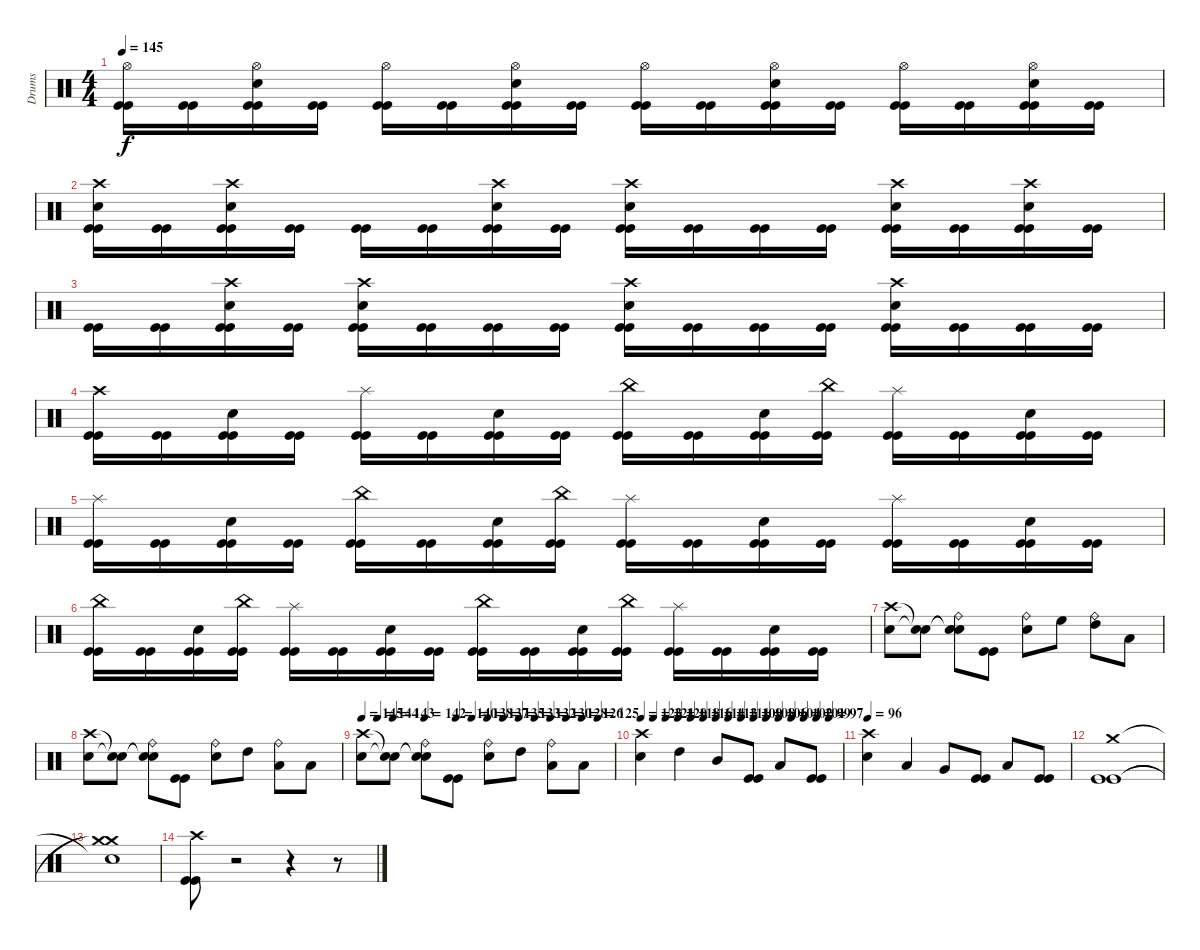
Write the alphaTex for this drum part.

\track ("Drums" "Drums") {instrument percussion}
\staff {score}
\articulation defaults
\ts (4 4)
\tempo 145
\clef neutral
\ks c
("Kick (hit)" "Kick (hit)" "Hi-Hat (open)").16{dy f} ("Kick (hit)" "Kick (hit)").16 ("Kick (hit)" "Kick (hit)" "Snare (hit) 2" "Hi-Hat (open)").16 ("Kick (hit)" "Kick (hit)").16 ("Kick (hit)" "Kick (hit)" "Hi-Hat (open)").16 ("Kick (hit)" "Kick (hit)").16 ("Kick (hit)" "Kick (hit)" "Snare (hit) 2" "Hi-Hat (open)").16 ("Kick (hit)" "Kick (hit)").16 ("Kick (hit)" "Kick (hit)" "Hi-Hat (open)").16 ("Kick (hit)" "Kick (hit)").16 ("Kick (hit)" "Kick (hit)" "Snare (hit) 2" "Hi-Hat (open)").16 ("Kick (hit)" "Kick (hit)").16 ("Kick (hit)" "Kick (hit)" "Hi-Hat (open)").16 ("Kick (hit)" "Kick (hit)").16 ("Kick (hit)" "Kick (hit)" "Snare (hit) 2" "Hi-Hat (open)").16 ("Kick (hit)" "Kick (hit)").16 |
("Kick (hit)" "Kick (hit)" "Snare (hit) 2" "Crash high (hit)").16 ("Kick (hit)" "Kick (hit)").16 ("Kick (hit)" "Kick (hit)" "Snare (hit) 2" "Crash high (hit)").16 ("Kick (hit)" "Kick (hit)").16 ("Kick (hit)" "Kick (hit)").16 ("Kick (hit)" "Kick (hit)").16 ("Kick (hit)" "Kick (hit)" "Snare (hit) 2" "Crash high (hit)").16 ("Kick (hit)" "Kick (hit)").16 ("Kick (hit)" "Kick (hit)" "Snare (hit) 2" "Crash high (hit)").16 ("Kick (hit)" "Kick (hit)").16 ("Kick (hit)" "Kick (hit)").16 ("Kick (hit)" "Kick (hit)").16 ("Kick (hit)" "Kick (hit)" "Snare (hit) 2" "Crash high (hit)").16 ("Kick (hit)" "Kick (hit)").16 ("Kick (hit)" "Kick (hit)" "Snare (hit) 2" "Crash high (hit)").16 ("Kick (hit)" "Kick (hit)").16 |
("Kick (hit)" "Kick (hit)").16 ("Kick (hit)" "Kick (hit)").16 ("Kick (hit)" "Kick (hit)" "Snare (hit) 2" "Crash high (hit)").16 ("Kick (hit)" "Kick (hit)").16 ("Kick (hit)" "Kick (hit)" "Snare (hit) 2" "Crash high (hit)").16 ("Kick (hit)" "Kick (hit)").16 ("Kick (hit)" "Kick (hit)").16 ("Kick (hit)" "Kick (hit)").16 ("Kick (hit)" "Kick (hit)" "Snare (hit) 2" "Crash high (hit)").16 ("Kick (hit)" "Kick (hit)").16 ("Kick (hit)" "Kick (hit)").16 ("Kick (hit)" "Kick (hit)").16 ("Kick (hit)" "Kick (hit)" "Snare (hit) 2" "Crash high (hit)").16 ("Kick (hit)" "Kick (hit)").16 ("Kick (hit)" "Kick (hit)").16 ("Kick (hit)" "Kick (hit)").16 |
("Kick (hit)" "Kick (hit)" "Crash high (hit)").16 ("Kick (hit)" "Kick (hit)").16 ("Kick (hit)" "Kick (hit)" "Snare (hit) 2").16 ("Kick (hit)" "Kick (hit)").16 ("Kick (hit)" "Kick (hit)" "Splash (hit)").16 ("Kick (hit)" "Kick (hit)").16 ("Kick (hit)" "Kick (hit)" "Snare (hit) 2").16 ("Kick (hit)" "Kick (hit)").16 ("Kick (hit)" "Kick (hit)" "China (hit)").16 ("Kick (hit)" "Kick (hit)").16 ("Kick (hit)" "Kick (hit)" "Snare (hit) 2").16 ("Kick (hit)" "Kick (hit)" "China (hit)").16 ("Kick (hit)" "Kick (hit)" "Splash (hit)").16 ("Kick (hit)" "Kick (hit)").16 ("Kick (hit)" "Kick (hit)" "Snare (hit) 2").16 ("Kick (hit)" "Kick (hit)").16 |
("Kick (hit)" "Kick (hit)" "Splash (hit)").16 ("Kick (hit)" "Kick (hit)").16 ("Kick (hit)" "Kick (hit)" "Snare (hit) 2").16 ("Kick (hit)" "Kick (hit)").16 ("Kick (hit)" "Kick (hit)" "China (hit)").16 ("Kick (hit)" "Kick (hit)").16 ("Kick (hit)" "Kick (hit)" "Snare (hit) 2").16 ("Kick (hit)" "Kick (hit)" "China (hit)").16 ("Kick (hit)" "Kick (hit)" "Splash (hit)").16 ("Kick (hit)" "Kick (hit)").16 ("Kick (hit)" "Kick (hit)" "Snare (hit) 2").16 ("Kick (hit)" "Kick (hit)").16 ("Kick (hit)" "Kick (hit)" "Splash (hit)").16 ("Kick (hit)" "Kick (hit)").16 ("Kick (hit)" "Kick (hit)" "Snare (hit) 2").16 ("Kick (hit)" "Kick (hit)").16 |
("Kick (hit)" "Kick (hit)" "China (hit)").16 ("Kick (hit)" "Kick (hit)").16 ("Kick (hit)" "Kick (hit)" "Snare (hit) 2").16 ("Kick (hit)" "Kick (hit)" "China (hit)").16 ("Kick (hit)" "Kick (hit)" "Splash (hit)").16 ("Kick (hit)" "Kick (hit)").16 ("Kick (hit)" "Kick (hit)" "Snare (hit) 2").16 ("Kick (hit)" "Kick (hit)").16 ("Kick (hit)" "Kick (hit)" "China (hit)").16 ("Kick (hit)" "Kick (hit)").16 ("Kick (hit)" "Kick (hit)" "Snare (hit) 2").16 ("Kick (hit)" "Kick (hit)" "China (hit)").16 ("Kick (hit)" "Kick (hit)" "Splash (hit)").16 ("Kick (hit)" "Kick (hit)").16 ("Kick (hit)" "Kick (hit)" "Snare (hit) 2").16 ("Kick (hit)" "Kick (hit)").16 |
("Snare (hit) 2" "Crash high (hit)").8 ("Snare (hit)"{t} "Snare (hit)"{t}).8 ("Snare (hit)"{t} "Snare (hit)"{t} "Ride (bell)").8 ("Kick (hit)" "Kick (hit)").8 ("Snare (hit) 2" "Ride (bell)").8 "High Floor Tom (hit)".8 ("High Tom (hit)" "Ride (bell)").8 "Low Tom (hit)".8 |
("Snare (hit) 2" "Crash high (hit)").8 ("Snare (hit)"{t} "Snare (hit)"{t}).8 ("Snare (hit)"{t} "Snare (hit)"{t} "Ride (bell)").8 ("Kick (hit)" "Kick (hit)").8 ("Snare (hit) 2" "Ride (bell)").8 "High Tom (hit)".8 ("Low Tom (hit)" "Ride (bell)").8 "Low Floor Tom (hit)".8 |
\tempo 145
\tempo (144 0.0625)
\tempo (143 0.125)
\tempo (142 0.25)
\tempo (140 0.375)
\tempo (138 0.4375)
\tempo (137 0.5)
\tempo (135 0.5625)
\tempo (133 0.625)
\tempo (132 0.6875)
\tempo (130 0.75)
\tempo (128 0.8125)
\tempo (126 0.875)
\tempo (125 0.9375)
("Snare (hit) 2" "Crash high (hit)").8 ("Snare (hit)"{t} "Snare (hit)"{t}).8 ("Snare (hit)"{t} "Snare (hit)"{t} "Ride (bell)").8 ("Kick (hit)" "Kick (hit)").8 ("Snare (hit) 2" "Ride (bell)").8 "High Tom (hit)".8 ("Low Tom (hit)" "Ride (bell)").8 "Low Floor Tom (hit)".8 |
\tempo 123
\tempo (121 0.0625)
\tempo (120 0.125)
\tempo (118 0.1875)
\tempo (116 0.25)
\tempo (114 0.3125)
\tempo (113 0.375)
\tempo (111 0.4375)
\tempo (109 0.5)
\tempo (108 0.5625)
\tempo (106 0.625)
\tempo (104 0.6875)
\tempo (102 0.75)
\tempo (101 0.8125)
\tempo (99 0.875)
\tempo (97 0.9375)
("Snare (hit) 2" "Crash high (hit)").4 "High Tom (hit)".4 "Mid Tom (hit)".8 ("Kick (hit)" "Kick (hit)").8 "Low Tom (hit)".8 ("Kick (hit)" "Kick (hit)").8 |
\tempo 96
("Snare (hit) 2" "Crash high (hit)").4 "Low Tom (hit)".4 "Very Low Tom (hit)".8 ("Kick (hit)" "Kick (hit)").8 "Low Floor Tom (hit)".8 ("Kick (hit)" "Kick (hit)").8 |
("Kick (hit)" "Kick (hit)" "Crash medium (hit)").1 |
("Crash medium (hit)"{t} "Crash medium (hit)"{t} "Snare (hit)"{t}).1 |
("Kick (hit)" "Kick (hit)" "Crash high (hit)").8 r.2 r.4 r.8
